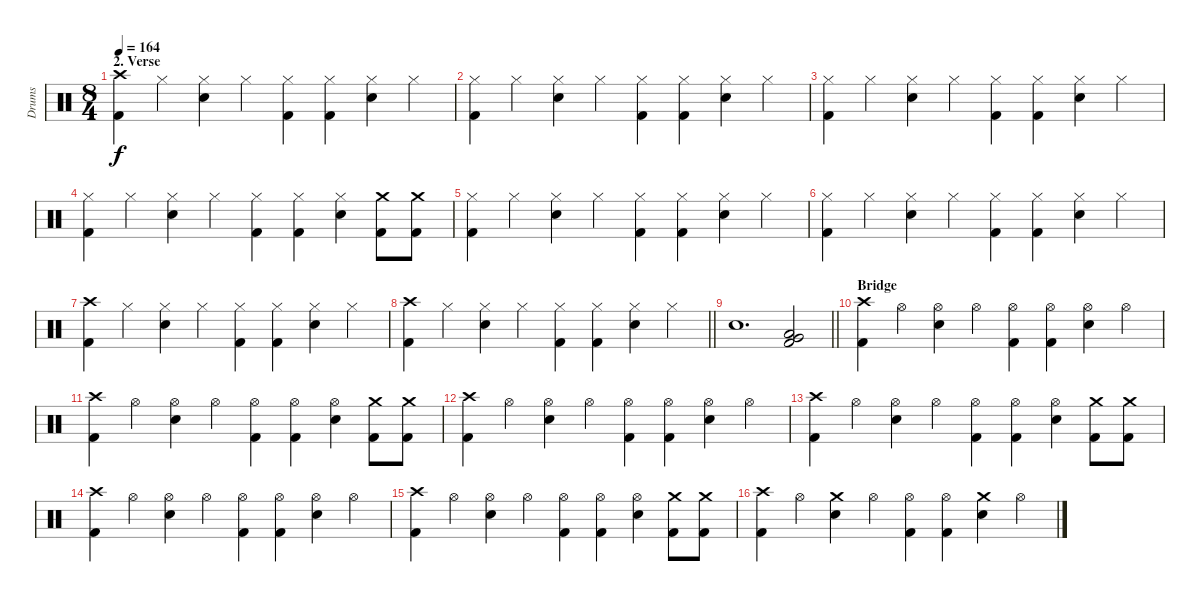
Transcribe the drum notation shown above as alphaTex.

\track ("Drums" "Drums") {instrument percussion}
\staff {score}
\articulation defaults
\ts (8 4)
\section ("" "2. Verse")
\tempo 164
\clef neutral
\ks c
("Crash high (hit)" "Kick (hit) 2").4{dy f} "Hi-Hat (closed)".4 ("Hi-Hat (closed)" "Snare (hit) 2").4 "Hi-Hat (closed)".4 ("Hi-Hat (closed)" "Kick (hit) 2").4 ("Hi-Hat (closed)" "Kick (hit) 2").4 ("Hi-Hat (closed)" "Snare (hit) 2").4 "Hi-Hat (closed)".4 |
("Hi-Hat (closed)" "Kick (hit) 2").4 "Hi-Hat (closed)".4 ("Hi-Hat (closed)" "Snare (hit) 2").4 "Hi-Hat (closed)".4 ("Hi-Hat (closed)" "Kick (hit) 2").4 ("Hi-Hat (closed)" "Kick (hit) 2").4 ("Hi-Hat (closed)" "Snare (hit) 2").4 "Hi-Hat (closed)".4 |
("Hi-Hat (closed)" "Kick (hit) 2").4 "Hi-Hat (closed)".4 ("Hi-Hat (closed)" "Snare (hit) 2").4 "Hi-Hat (closed)".4 ("Hi-Hat (closed)" "Kick (hit) 2").4 ("Hi-Hat (closed)" "Kick (hit) 2").4 ("Hi-Hat (closed)" "Snare (hit) 2").4 "Hi-Hat (closed)".4 |
("Hi-Hat (closed)" "Kick (hit) 2").4 "Hi-Hat (closed)".4 ("Hi-Hat (closed)" "Snare (hit) 2").4 "Hi-Hat (closed)".4 ("Hi-Hat (closed)" "Kick (hit) 2").4 ("Hi-Hat (closed)" "Kick (hit) 2").4 ("Hi-Hat (closed)" "Snare (hit) 2").4 ("Crash medium (hit)" "Kick (hit) 2").8 ("Crash medium (hit)" "Kick (hit) 2").8 |
("Hi-Hat (closed)" "Kick (hit) 2").4 "Hi-Hat (closed)".4 ("Hi-Hat (closed)" "Snare (hit) 2").4 "Hi-Hat (closed)".4 ("Hi-Hat (closed)" "Kick (hit) 2").4 ("Hi-Hat (closed)" "Kick (hit) 2").4 ("Hi-Hat (closed)" "Snare (hit) 2").4 "Hi-Hat (closed)".4 |
("Hi-Hat (closed)" "Kick (hit) 2").4 "Hi-Hat (closed)".4 ("Hi-Hat (closed)" "Snare (hit) 2").4 "Hi-Hat (closed)".4 ("Hi-Hat (closed)" "Kick (hit) 2").4 ("Hi-Hat (closed)" "Kick (hit) 2").4 ("Hi-Hat (closed)" "Snare (hit) 2").4 "Hi-Hat (closed)".4 |
("Crash high (hit)" "Kick (hit) 2").4 "Hi-Hat (closed)".4 ("Hi-Hat (closed)" "Snare (hit) 2").4 "Hi-Hat (closed)".4 ("Hi-Hat (closed)" "Kick (hit) 2").4 ("Hi-Hat (closed)" "Kick (hit) 2").4 ("Hi-Hat (closed)" "Snare (hit) 2").4 "Hi-Hat (closed)".4 |
\barLineRight lightlight
("Crash high (hit)" "Kick (hit) 2").4 "Hi-Hat (closed)".4 ("Hi-Hat (closed)" "Snare (hit) 2").4 "Hi-Hat (closed)".4 ("Hi-Hat (closed)" "Kick (hit) 2").4 ("Hi-Hat (closed)" "Kick (hit) 2").4 ("Hi-Hat (closed)" "Snare (hit) 2").4 "Hi-Hat (closed)".4 |
\barLineRight lightlight "Snare (hit) 2".1{d}
("Kick (hit) 2" "Low Floor Tom (hit)" "Very Low Tom (hit)").2 |
\section ("" "Bridge")
("Crash high (hit)" "Kick (hit) 2").4 "Hi-Hat (open)".4 ("Hi-Hat (open)" "Snare (hit) 2").4 "Hi-Hat (open)".4 ("Hi-Hat (open)" "Kick (hit) 2").4 ("Hi-Hat (open)" "Kick (hit) 2").4 ("Hi-Hat (open)" "Snare (hit) 2").4 "Hi-Hat (open)".4 |
("Crash high (hit)" "Kick (hit) 2").4 "Hi-Hat (open)".4 ("Hi-Hat (open)" "Snare (hit) 2").4 "Hi-Hat (open)".4 ("Hi-Hat (open)" "Kick (hit) 2").4 ("Hi-Hat (open)" "Kick (hit) 2").4 ("Hi-Hat (open)" "Snare (hit) 2").4 ("Crash medium (hit)" "Kick (hit) 2").8 ("Crash medium (hit)" "Kick (hit) 2").8 |
("Crash high (hit)" "Kick (hit) 2").4 "Hi-Hat (open)".4 ("Hi-Hat (open)" "Snare (hit) 2").4 "Hi-Hat (open)".4 ("Hi-Hat (open)" "Kick (hit) 2").4 ("Hi-Hat (open)" "Kick (hit) 2").4 ("Hi-Hat (open)" "Snare (hit) 2").4 "Hi-Hat (open)".4 |
("Crash high (hit)" "Kick (hit) 2").4 "Hi-Hat (open)".4 ("Hi-Hat (open)" "Snare (hit) 2").4 "Hi-Hat (open)".4 ("Hi-Hat (open)" "Kick (hit) 2").4 ("Hi-Hat (open)" "Kick (hit) 2").4 ("Hi-Hat (open)" "Snare (hit) 2").4 ("Crash medium (hit)" "Kick (hit) 2").8 ("Crash medium (hit)" "Kick (hit) 2").8 |
("Crash high (hit)" "Kick (hit) 2").4 "Hi-Hat (open)".4 ("Hi-Hat (open)" "Snare (hit) 2").4 "Hi-Hat (open)".4 ("Hi-Hat (open)" "Kick (hit) 2").4 ("Hi-Hat (open)" "Kick (hit) 2").4 ("Hi-Hat (open)" "Snare (hit) 2").4 "Hi-Hat (open)".4 |
("Crash high (hit)" "Kick (hit) 2").4 "Hi-Hat (open)".4 ("Hi-Hat (open)" "Snare (hit) 2").4 "Hi-Hat (open)".4 ("Hi-Hat (open)" "Kick (hit) 2").4 ("Hi-Hat (open)" "Kick (hit) 2").4 ("Hi-Hat (open)" "Snare (hit) 2").4 ("Crash medium (hit)" "Kick (hit) 2").8 ("Crash medium (hit)" "Kick (hit) 2").8 |
("Crash high (hit)" "Kick (hit) 2").4 "Hi-Hat (open)".4 ("Crash medium (hit)" "Snare (hit) 2").4 "Hi-Hat (open)".4 ("Hi-Hat (open)" "Kick (hit) 2").4 ("Hi-Hat (open)" "Kick (hit) 2").4 ("Crash medium (hit)" "Snare (hit) 2").4 "Hi-Hat (open)".4
